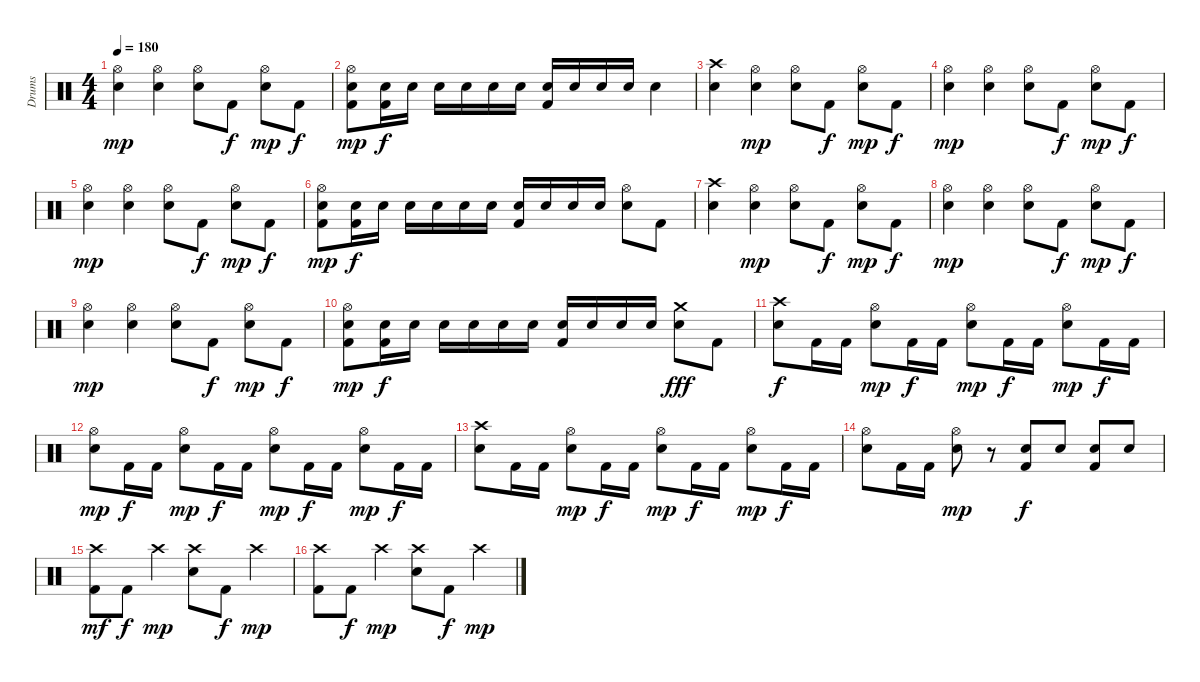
\track ("Drums" "Drums") {instrument percussion}
\staff {score}
\articulation defaults
\ts (4 4)
\tempo 180
\clef neutral
\ks c
("Hi-Hat (open)" "Electric Snare (hit)").4{dy mp} ("Hi-Hat (open)" "Electric Snare (hit)").4 ("Hi-Hat (open)" "Electric Snare (hit)").8 "Kick (hit) 2".8{dy f} ("Hi-Hat (open)" "Electric Snare (hit)").8{dy mp} "Kick (hit) 2".8{dy f} |
("Hi-Hat (open)" "Kick (hit) 2" "Electric Snare (hit)").8{dy mp} ("Kick (hit) 2" "Electric Snare (hit)").16{dy f} "Electric Snare (hit)".16 "Electric Snare (hit)".16 "Electric Snare (hit)".16 "Electric Snare (hit)".16 "Electric Snare (hit)".16 ("Kick (hit) 2" "Electric Snare (hit)").16 "Electric Snare (hit)".16 "Electric Snare (hit)".16 "Electric Snare (hit)".16 "Electric Snare (hit)".4 |
("Crash high (hit)" "Electric Snare (hit)").4 ("Hi-Hat (open)" "Electric Snare (hit)").4{dy mp} ("Hi-Hat (open)" "Electric Snare (hit)").8 "Kick (hit) 2".8{dy f} ("Hi-Hat (open)" "Electric Snare (hit)").8{dy mp} "Kick (hit) 2".8{dy f} |
("Hi-Hat (open)" "Electric Snare (hit)").4{dy mp} ("Hi-Hat (open)" "Electric Snare (hit)").4 ("Hi-Hat (open)" "Electric Snare (hit)").8 "Kick (hit) 2".8{dy f} ("Hi-Hat (open)" "Electric Snare (hit)").8{dy mp} "Kick (hit) 2".8{dy f} |
("Hi-Hat (open)" "Electric Snare (hit)").4{dy mp} ("Hi-Hat (open)" "Electric Snare (hit)").4 ("Hi-Hat (open)" "Electric Snare (hit)").8 "Kick (hit) 2".8{dy f} ("Hi-Hat (open)" "Electric Snare (hit)").8{dy mp} "Kick (hit) 2".8{dy f} |
("Hi-Hat (open)" "Kick (hit) 2" "Electric Snare (hit)").8{dy mp} ("Kick (hit) 2" "Electric Snare (hit)").16{dy f} "Electric Snare (hit)".16 "Electric Snare (hit)".16 "Electric Snare (hit)".16 "Electric Snare (hit)".16 "Electric Snare (hit)".16 ("Kick (hit) 2" "Electric Snare (hit)").16 "Electric Snare (hit)".16 "Electric Snare (hit)".16 "Electric Snare (hit)".16 ("Hi-Hat (open)" "Electric Snare (hit)").8 "Kick (hit) 2".8 |
("Crash high (hit)" "Electric Snare (hit)").4 ("Hi-Hat (open)" "Electric Snare (hit)").4{dy mp} ("Hi-Hat (open)" "Electric Snare (hit)").8 "Kick (hit) 2".8{dy f} ("Hi-Hat (open)" "Electric Snare (hit)").8{dy mp} "Kick (hit) 2".8{dy f} |
("Hi-Hat (open)" "Electric Snare (hit)").4{dy mp} ("Hi-Hat (open)" "Electric Snare (hit)").4 ("Hi-Hat (open)" "Electric Snare (hit)").8 "Kick (hit) 2".8{dy f} ("Hi-Hat (open)" "Electric Snare (hit)").8{dy mp} "Kick (hit) 2".8{dy f} |
("Hi-Hat (open)" "Electric Snare (hit)").4{dy mp} ("Hi-Hat (open)" "Electric Snare (hit)").4 ("Hi-Hat (open)" "Electric Snare (hit)").8 "Kick (hit) 2".8{dy f} ("Hi-Hat (open)" "Electric Snare (hit)").8{dy mp} "Kick (hit) 2".8{dy f} |
("Hi-Hat (open)" "Kick (hit) 2" "Electric Snare (hit)").8{dy mp} ("Kick (hit) 2" "Electric Snare (hit)").16{dy f} "Electric Snare (hit)".16 "Electric Snare (hit)".16 "Electric Snare (hit)".16 "Electric Snare (hit)".16 "Electric Snare (hit)".16 ("Kick (hit) 2" "Electric Snare (hit)").16 "Electric Snare (hit)".16 "Electric Snare (hit)".16 "Electric Snare (hit)".16 ("Crash medium (hit)" "Electric Snare (hit)").8{dy fff} "Kick (hit) 2".8 |
("Crash high (hit)" "Electric Snare (hit)").8{dy f} "Kick (hit) 2".16 "Kick (hit) 2".16 ("Hi-Hat (open)" "Electric Snare (hit)").8{dy mp} "Kick (hit) 2".16{dy f} "Kick (hit) 2".16 ("Hi-Hat (open)" "Electric Snare (hit)").8{dy mp} "Kick (hit) 2".16{dy f} "Kick (hit) 2".16 ("Hi-Hat (open)" "Electric Snare (hit)").8{dy mp} "Kick (hit) 2".16{dy f} "Kick (hit) 2".16 |
("Hi-Hat (open)" "Electric Snare (hit)").8{dy mp} "Kick (hit) 2".16{dy f} "Kick (hit) 2".16 ("Hi-Hat (open)" "Electric Snare (hit)").8{dy mp} "Kick (hit) 2".16{dy f} "Kick (hit) 2".16 ("Hi-Hat (open)" "Electric Snare (hit)").8{dy mp} "Kick (hit) 2".16{dy f} "Kick (hit) 2".16 ("Hi-Hat (open)" "Electric Snare (hit)").8{dy mp} "Kick (hit) 2".16{dy f} "Kick (hit) 2".16 |
("Crash high (hit)" "Electric Snare (hit)").8 "Kick (hit) 2".16 "Kick (hit) 2".16 ("Hi-Hat (open)" "Electric Snare (hit)").8{dy mp} "Kick (hit) 2".16{dy f} "Kick (hit) 2".16 ("Hi-Hat (open)" "Electric Snare (hit)").8{dy mp} "Kick (hit) 2".16{dy f} "Kick (hit) 2".16 ("Hi-Hat (open)" "Electric Snare (hit)").8{dy mp} "Kick (hit) 2".16{dy f} "Kick (hit) 2".16 |
("Hi-Hat (open)" "Electric Snare (hit)").8 "Kick (hit) 2".16 "Kick (hit) 2".16 ("Hi-Hat (open)" "Electric Snare (hit)").8{dy mp} r.8 ("Kick (hit) 2" "Electric Snare (hit)").8{dy f} "Electric Snare (hit)".8 ("Kick (hit) 2" "Electric Snare (hit)").8 "Electric Snare (hit)".8 |
("Crash high (hit)" "Kick (hit) 2").8{dy mf} "Kick (hit) 2".8{dy f} "Crash high (hit)".4{dy mp} ("Crash high (hit)" "Electric Snare (hit)").8 "Kick (hit) 2".8{dy f} "Crash high (hit)".4{dy mp} |
("Crash high (hit)" "Kick (hit) 2").8 "Kick (hit) 2".8{dy f} "Crash high (hit)".4{dy mp} ("Crash high (hit)" "Electric Snare (hit)").8 "Kick (hit) 2".8{dy f} "Crash high (hit)".4{dy mp}
